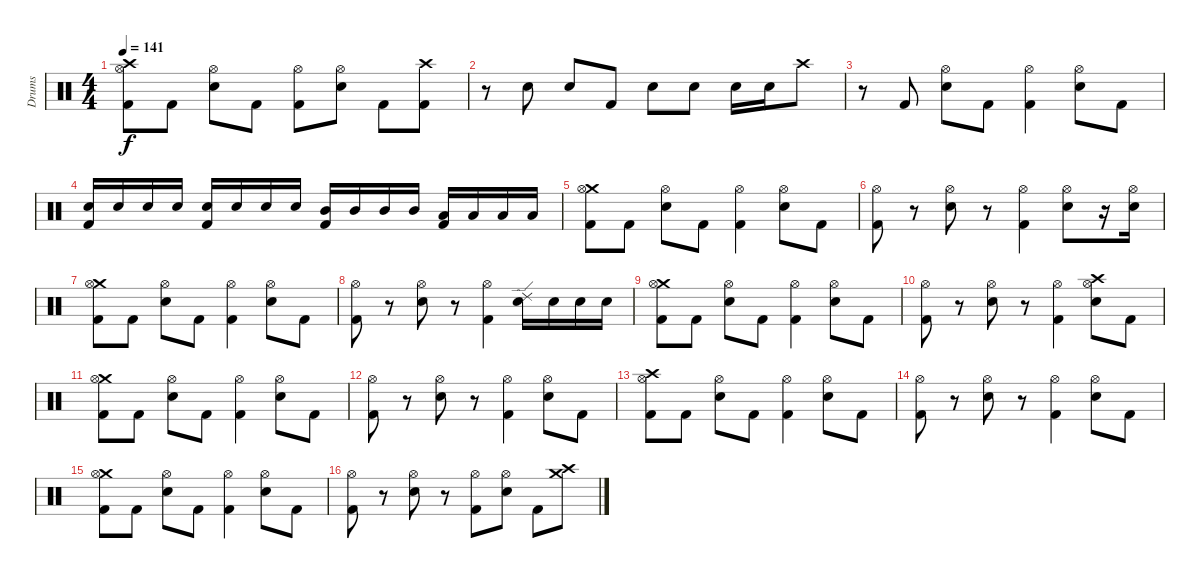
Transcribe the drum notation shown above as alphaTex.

\track ("Drums" "Drums") {instrument percussion}
\staff {score}
\articulation defaults
\ts (4 4)
\tempo 141
\clef neutral
\ks c
("Crash high (hit)" "Hi-Hat (open)" "Kick (hit) 2").8{dy f} "Kick (hit) 2".8 ("Hi-Hat (open)" "Electric Snare (hit)").8 "Kick (hit) 2".8 ("Hi-Hat (open)" "Kick (hit) 2").8 ("Hi-Hat (open)" "Electric Snare (hit)").8 "Kick (hit) 2".8 ("Crash high (hit)" "Kick (hit) 2").8 |
r.8 "Electric Snare (hit)".8 "Electric Snare (hit)".8 "Kick (hit) 2".8 "Electric Snare (hit)".8 "Electric Snare (hit)".8 "Electric Snare (hit)".16 "Electric Snare (hit)".16 "Crash high (hit)".8 |
r.8 "Kick (hit) 2".8 ("Hi-Hat (open)" "Electric Snare (hit)").8 "Kick (hit) 2".8 ("Hi-Hat (open)" "Kick (hit) 2").4 ("Hi-Hat (open)" "Electric Snare (hit)").8 "Kick (hit) 2".8 |
("Electric Snare (hit)" "Kick (hit) 2").16 "Electric Snare (hit)".16 "Electric Snare (hit)".16 "Electric Snare (hit)".16 ("Electric Snare (hit)" "Kick (hit) 2").16 "Electric Snare (hit)".16 "Electric Snare (hit)".16 "Electric Snare (hit)".16 ("Mid Tom (hit)" "Kick (hit) 2").16 "Mid Tom (hit)".16 "Mid Tom (hit)".16 "Mid Tom (hit)".16 ("Low Tom (hit)" "Kick (hit) 2").16 "Low Tom (hit)".16 "Low Tom (hit)".16 "Low Tom (hit)".16 |
("Crash medium (hit)" "Hi-Hat (open)" "Kick (hit) 2").8 "Kick (hit) 2".8 ("Hi-Hat (open)" "Electric Snare (hit)").8 "Kick (hit) 2".8 ("Hi-Hat (open)" "Kick (hit) 2").4 ("Hi-Hat (open)" "Electric Snare (hit)").8 "Kick (hit) 2".8 |
("Hi-Hat (open)" "Kick (hit) 2").8 r.8 ("Hi-Hat (open)" "Electric Snare (hit)").8 r.8 ("Hi-Hat (open)" "Kick (hit) 2").4 ("Hi-Hat (open)" "Electric Snare (hit)").8 r.16 ("Hi-Hat (open)" "Electric Snare (hit)").16 |
("Crash medium (hit)" "Hi-Hat (open)" "Kick (hit) 2").8 "Kick (hit) 2".8 ("Hi-Hat (open)" "Electric Snare (hit)").8 "Kick (hit) 2".8 ("Hi-Hat (open)" "Kick (hit) 2").4 ("Hi-Hat (open)" "Electric Snare (hit)").8 "Kick (hit) 2".8 |
("Hi-Hat (open)" "Kick (hit) 2").8 r.8 ("Hi-Hat (open)" "Electric Snare (hit)").8 r.8 ("Hi-Hat (open)" "Kick (hit) 2").4 ("Ride (edge) 2" "Electric Snare (hit)").16 "Electric Snare (hit)".16 "Electric Snare (hit)".16 "Electric Snare (hit)".16 |
("Crash medium (hit)" "Hi-Hat (open)" "Kick (hit) 2").8 "Kick (hit) 2".8 ("Hi-Hat (open)" "Electric Snare (hit)").8 "Kick (hit) 2".8 ("Hi-Hat (open)" "Kick (hit) 2").4 ("Hi-Hat (open)" "Electric Snare (hit)").8 "Kick (hit) 2".8 |
("Hi-Hat (open)" "Kick (hit) 2").8 r.8 ("Hi-Hat (open)" "Electric Snare (hit)").8 r.8 ("Hi-Hat (open)" "Kick (hit) 2").4 ("Crash high (hit)" "Hi-Hat (open)" "Electric Snare (hit)").8 "Kick (hit) 2".8 |
("Crash medium (hit)" "Hi-Hat (open)" "Kick (hit) 2").8 "Kick (hit) 2".8 ("Hi-Hat (open)" "Electric Snare (hit)").8 "Kick (hit) 2".8 ("Hi-Hat (open)" "Kick (hit) 2").4 ("Hi-Hat (open)" "Electric Snare (hit)").8 "Kick (hit) 2".8 |
("Hi-Hat (open)" "Kick (hit) 2").8 r.8 ("Hi-Hat (open)" "Electric Snare (hit)").8 r.8 ("Hi-Hat (open)" "Kick (hit) 2").4 ("Hi-Hat (open)" "Electric Snare (hit)").8 "Kick (hit) 2".8 |
("Crash high (hit)" "Hi-Hat (open)" "Kick (hit) 2").8 "Kick (hit) 2".8 ("Hi-Hat (open)" "Electric Snare (hit)").8 "Kick (hit) 2".8 ("Hi-Hat (open)" "Kick (hit) 2").4 ("Hi-Hat (open)" "Electric Snare (hit)").8 "Kick (hit) 2".8 |
("Hi-Hat (open)" "Kick (hit) 2").8 r.8 ("Hi-Hat (open)" "Electric Snare (hit)").8 r.8 ("Hi-Hat (open)" "Kick (hit) 2").4 ("Hi-Hat (open)" "Electric Snare (hit)").8 "Kick (hit) 2".8 |
("Crash medium (hit)" "Hi-Hat (open)" "Kick (hit) 2").8 "Kick (hit) 2".8 ("Hi-Hat (open)" "Electric Snare (hit)").8 "Kick (hit) 2".8 ("Hi-Hat (open)" "Kick (hit) 2").4 ("Hi-Hat (open)" "Electric Snare (hit)").8 "Kick (hit) 2".8 |
("Hi-Hat (open)" "Kick (hit) 2").8 r.8 ("Hi-Hat (open)" "Electric Snare (hit)").8 r.8 ("Hi-Hat (open)" "Kick (hit) 2").8 ("Hi-Hat (open)" "Electric Snare (hit)").8 "Kick (hit) 2".8 ("Crash medium (hit)" "Crash high (hit)").8
